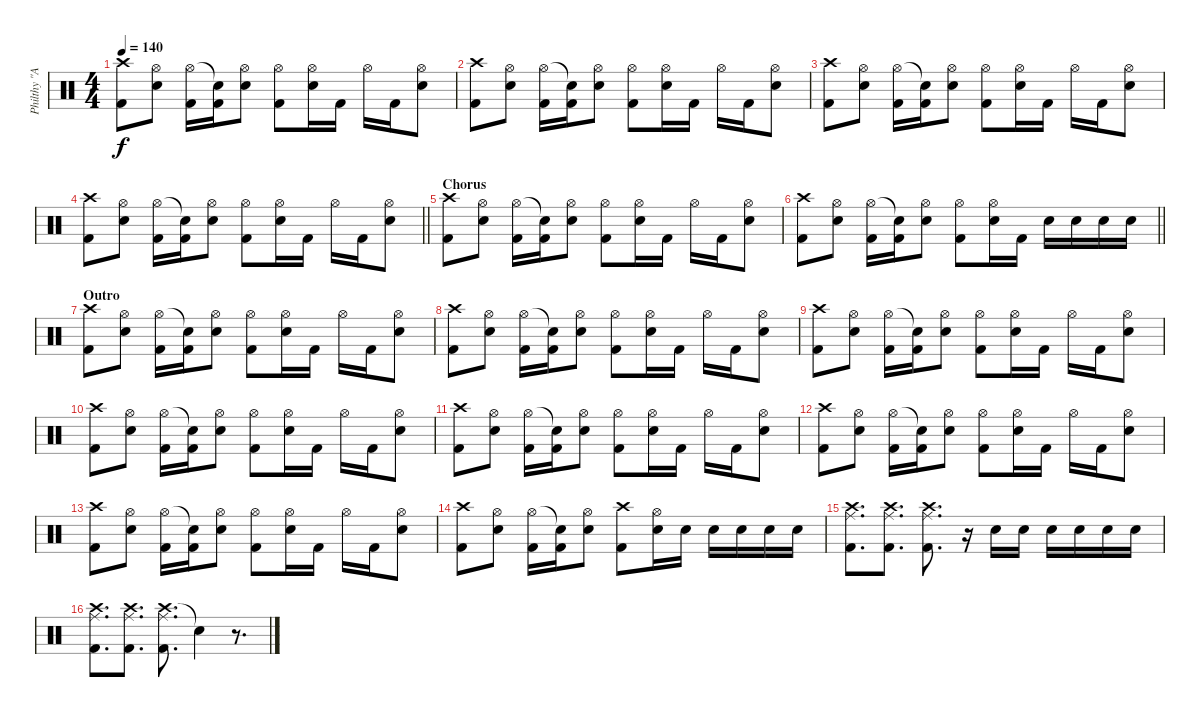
\track ("Philthy \"Animal\" Taylor (drums)" "Philthy \"A") {instrument percussion}
\staff {score}
\articulation defaults
\ts (4 4)
\tempo 140
\clef neutral
\ks c
("Crash high (hit)" "Kick (hit) 2").8{dy f} ("Hi-Hat (open)" "Electric Snare (hit)").8 ("Hi-Hat (open)" "Kick (hit) 2").16 ("Snare (hit)"{t} "Kick (hit) 2").16 ("Hi-Hat (open)" "Electric Snare (hit)").8 ("Hi-Hat (open)" "Kick (hit) 2").8 ("Hi-Hat (open)" "Electric Snare (hit)").16 "Kick (hit) 2".16 "Hi-Hat (open)".16 "Kick (hit) 2".16 ("Hi-Hat (open)" "Electric Snare (hit)").8 |
("Crash high (hit)" "Kick (hit) 2").8 ("Hi-Hat (open)" "Electric Snare (hit)").8 ("Hi-Hat (open)" "Kick (hit) 2").16 ("Snare (hit)"{t} "Kick (hit) 2").16 ("Hi-Hat (open)" "Electric Snare (hit)").8 ("Hi-Hat (open)" "Kick (hit) 2").8 ("Hi-Hat (open)" "Electric Snare (hit)").16 "Kick (hit) 2".16 "Hi-Hat (open)".16 "Kick (hit) 2".16 ("Hi-Hat (open)" "Electric Snare (hit)").8 |
("Crash high (hit)" "Kick (hit) 2").8 ("Hi-Hat (open)" "Electric Snare (hit)").8 ("Hi-Hat (open)" "Kick (hit) 2").16 ("Snare (hit)"{t} "Kick (hit) 2").16 ("Hi-Hat (open)" "Electric Snare (hit)").8 ("Hi-Hat (open)" "Kick (hit) 2").8 ("Hi-Hat (open)" "Electric Snare (hit)").16 "Kick (hit) 2".16 "Hi-Hat (open)".16 "Kick (hit) 2".16 ("Hi-Hat (open)" "Electric Snare (hit)").8 |
\barLineRight lightlight
("Crash high (hit)" "Kick (hit) 2").8 ("Hi-Hat (open)" "Electric Snare (hit)").8 ("Hi-Hat (open)" "Kick (hit) 2").16 ("Snare (hit)"{t} "Kick (hit) 2").16 ("Hi-Hat (open)" "Electric Snare (hit)").8 ("Hi-Hat (open)" "Kick (hit) 2").8 ("Hi-Hat (open)" "Electric Snare (hit)").16 "Kick (hit) 2".16 "Hi-Hat (open)".16 "Kick (hit) 2".16 ("Hi-Hat (open)" "Electric Snare (hit)").8 |
\section ("" "Chorus")
("Crash high (hit)" "Kick (hit) 2").8 ("Hi-Hat (open)" "Electric Snare (hit)").8 ("Hi-Hat (open)" "Kick (hit) 2").16 ("Snare (hit)"{t} "Kick (hit) 2").16 ("Hi-Hat (open)" "Electric Snare (hit)").8 ("Hi-Hat (open)" "Kick (hit) 2").8 ("Hi-Hat (open)" "Electric Snare (hit)").16 "Kick (hit) 2".16 "Hi-Hat (open)".16 "Kick (hit) 2".16 ("Hi-Hat (open)" "Electric Snare (hit)").8 |
\barLineRight lightlight
("Crash high (hit)" "Kick (hit) 2").8 ("Hi-Hat (open)" "Electric Snare (hit)").8 ("Hi-Hat (open)" "Kick (hit) 2").16 ("Snare (hit)"{t} "Kick (hit) 2").16 ("Hi-Hat (open)" "Electric Snare (hit)").8 ("Hi-Hat (open)" "Kick (hit) 2").8 ("Hi-Hat (open)" "Electric Snare (hit)").16 "Kick (hit) 2".16 "Electric Snare (hit)".16 "Electric Snare (hit)".16 "Electric Snare (hit)".16 "Electric Snare (hit)".16 |
\section ("" "Outro")
("Crash high (hit)" "Kick (hit) 2").8 ("Hi-Hat (open)" "Electric Snare (hit)").8 ("Hi-Hat (open)" "Kick (hit) 2").16 ("Snare (hit)"{t} "Kick (hit) 2").16 ("Hi-Hat (open)" "Electric Snare (hit)").8 ("Hi-Hat (open)" "Kick (hit) 2").8 ("Hi-Hat (open)" "Electric Snare (hit)").16 "Kick (hit) 2".16 "Hi-Hat (open)".16 "Kick (hit) 2".16 ("Hi-Hat (open)" "Electric Snare (hit)").8 |
("Crash high (hit)" "Kick (hit) 2").8 ("Hi-Hat (open)" "Electric Snare (hit)").8 ("Hi-Hat (open)" "Kick (hit) 2").16 ("Snare (hit)"{t} "Kick (hit) 2").16 ("Hi-Hat (open)" "Electric Snare (hit)").8 ("Hi-Hat (open)" "Kick (hit) 2").8 ("Hi-Hat (open)" "Electric Snare (hit)").16 "Kick (hit) 2".16 "Hi-Hat (open)".16 "Kick (hit) 2".16 ("Hi-Hat (open)" "Electric Snare (hit)").8 |
("Crash high (hit)" "Kick (hit) 2").8 ("Hi-Hat (open)" "Electric Snare (hit)").8 ("Hi-Hat (open)" "Kick (hit) 2").16 ("Snare (hit)"{t} "Kick (hit) 2").16 ("Hi-Hat (open)" "Electric Snare (hit)").8 ("Hi-Hat (open)" "Kick (hit) 2").8 ("Hi-Hat (open)" "Electric Snare (hit)").16 "Kick (hit) 2".16 "Hi-Hat (open)".16 "Kick (hit) 2".16 ("Hi-Hat (open)" "Electric Snare (hit)").8 |
("Crash high (hit)" "Kick (hit) 2").8 ("Hi-Hat (open)" "Electric Snare (hit)").8 ("Hi-Hat (open)" "Kick (hit) 2").16 ("Snare (hit)"{t} "Kick (hit) 2").16 ("Hi-Hat (open)" "Electric Snare (hit)").8 ("Hi-Hat (open)" "Kick (hit) 2").8 ("Hi-Hat (open)" "Electric Snare (hit)").16 "Kick (hit) 2".16 "Hi-Hat (open)".16 "Kick (hit) 2".16 ("Hi-Hat (open)" "Electric Snare (hit)").8 |
("Crash high (hit)" "Kick (hit) 2").8 ("Hi-Hat (open)" "Electric Snare (hit)").8 ("Hi-Hat (open)" "Kick (hit) 2").16 ("Snare (hit)"{t} "Kick (hit) 2").16 ("Hi-Hat (open)" "Electric Snare (hit)").8 ("Hi-Hat (open)" "Kick (hit) 2").8 ("Hi-Hat (open)" "Electric Snare (hit)").16 "Kick (hit) 2".16 "Hi-Hat (open)".16 "Kick (hit) 2".16 ("Hi-Hat (open)" "Electric Snare (hit)").8 |
("Crash high (hit)" "Kick (hit) 2").8 ("Hi-Hat (open)" "Electric Snare (hit)").8 ("Hi-Hat (open)" "Kick (hit) 2").16 ("Snare (hit)"{t} "Kick (hit) 2").16 ("Hi-Hat (open)" "Electric Snare (hit)").8 ("Hi-Hat (open)" "Kick (hit) 2").8 ("Hi-Hat (open)" "Electric Snare (hit)").16 "Kick (hit) 2".16 "Hi-Hat (open)".16 "Kick (hit) 2".16 ("Hi-Hat (open)" "Electric Snare (hit)").8 |
("Crash high (hit)" "Kick (hit) 2").8 ("Hi-Hat (open)" "Electric Snare (hit)").8 ("Hi-Hat (open)" "Kick (hit) 2").16 ("Snare (hit)"{t} "Kick (hit) 2").16 ("Hi-Hat (open)" "Electric Snare (hit)").8 ("Hi-Hat (open)" "Kick (hit) 2").8 ("Hi-Hat (open)" "Electric Snare (hit)").16 "Kick (hit) 2".16 "Hi-Hat (open)".16 "Kick (hit) 2".16 ("Hi-Hat (open)" "Electric Snare (hit)").8 |
("Crash high (hit)" "Kick (hit) 2").8 ("Hi-Hat (open)" "Electric Snare (hit)").8 ("Hi-Hat (open)" "Kick (hit) 2").16 ("Snare (hit)"{t} "Kick (hit) 2").16 ("Hi-Hat (open)" "Electric Snare (hit)").8 ("Crash high (hit)" "Kick (hit) 2").8 ("Hi-Hat (open)" "Electric Snare (hit)").16 "Electric Snare (hit)".16 "Electric Snare (hit)".16 "Electric Snare (hit)".16 "Electric Snare (hit)".16 "Electric Snare (hit)".16 |
("Crash high (hit)" "Ride (middle)" "Kick (hit) 2").8{d} ("Crash high (hit)" "Ride (middle)" "Kick (hit) 2").8{d} ("Crash high (hit)" "Ride (middle)" "Kick (hit) 2").8{d} r.16 "Electric Snare (hit)".16 "Electric Snare (hit)".16 "Electric Snare (hit)".16 "Electric Snare (hit)".16 "Electric Snare (hit)".16 "Electric Snare (hit)".16 |
("Crash high (hit)" "Ride (middle)" "Kick (hit) 2").8{d} ("Crash high (hit)" "Ride (middle)" "Kick (hit) 2").8{d} ("Crash high (hit)" "Ride (middle)" "Kick (hit) 2").8{d} "Snare (hit)"{t}.4 r.8{d}
